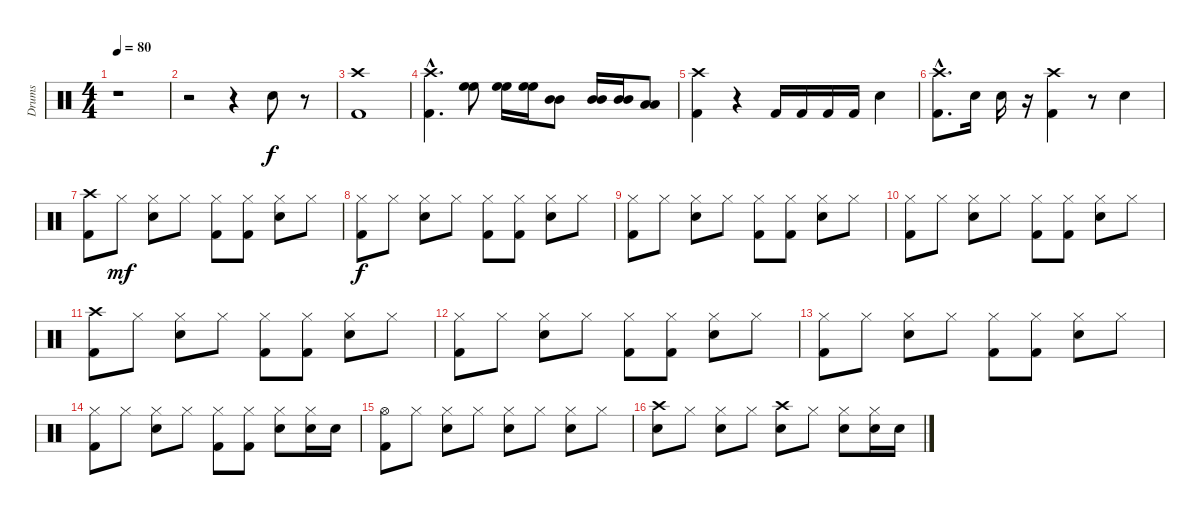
\track ("Drums" "Drums") {instrument percussion}
\staff {score}
\articulation defaults
\ts (4 4)
\tempo 80
\clef neutral
\ks c
r.1{dy f} |
r.2 r.4 "Snare (hit) 2".8 r.8 |
("Crash high (hit)" "Kick (hit) 2").1 |
("Crash high (hit)"{hac} "Kick (hit) 2"{hac}).4{d} ("High Floor Tom (hit)" "High Floor Tom (hit)").8 ("High Floor Tom (hit)" "High Floor Tom (hit)").16 ("High Floor Tom (hit)" "High Floor Tom (hit)").16 ("Mid Tom (hit)" "Mid Tom (hit)").8 ("Mid Tom (hit)" "Mid Tom (hit)").16 ("Mid Tom (hit)" "Mid Tom (hit)").16 ("Low Tom (hit)" "Low Tom (hit)").8 |
("Crash high (hit)" "Kick (hit) 2").4 r.4 "Kick (hit) 2".16 "Kick (hit) 2".16 "Kick (hit) 2".16 "Kick (hit) 2".16 "Snare (hit) 2".4 |
("Crash high (hit)"{hac} "Kick (hit) 2"{hac}).8{d} "Snare (hit) 2".16 "Snare (hit) 2".16 r.16 ("Crash high (hit)" "Kick (hit) 2").4 r.8 "Snare (hit) 2".4 |
("Crash high (hit)" "Kick (hit) 2").8 "Hi-Hat (closed)".8{dy mf} ("Hi-Hat (closed)" "Snare (hit) 2").8 "Hi-Hat (closed)".8 ("Hi-Hat (closed)" "Kick (hit) 2").8 ("Hi-Hat (closed)" "Kick (hit) 2").8 ("Hi-Hat (closed)" "Snare (hit) 2").8 "Hi-Hat (closed)".8 |
("Hi-Hat (closed)" "Kick (hit) 2").8{dy f} "Hi-Hat (closed)".8 ("Hi-Hat (closed)" "Snare (hit) 2").8 "Hi-Hat (closed)".8 ("Hi-Hat (closed)" "Kick (hit) 2").8 ("Hi-Hat (closed)" "Kick (hit) 2").8 ("Hi-Hat (closed)" "Snare (hit) 2").8 "Hi-Hat (closed)".8 |
("Hi-Hat (closed)" "Kick (hit) 2").8 "Hi-Hat (closed)".8 ("Hi-Hat (closed)" "Snare (hit) 2").8 "Hi-Hat (closed)".8 ("Hi-Hat (closed)" "Kick (hit) 2").8 ("Hi-Hat (closed)" "Kick (hit) 2").8 ("Hi-Hat (closed)" "Snare (hit) 2").8 "Hi-Hat (closed)".8 |
("Hi-Hat (closed)" "Kick (hit) 2").8 "Hi-Hat (closed)".8 ("Hi-Hat (closed)" "Snare (hit) 2").8 "Hi-Hat (closed)".8 ("Hi-Hat (closed)" "Kick (hit) 2").8 ("Hi-Hat (closed)" "Kick (hit) 2").8 ("Hi-Hat (closed)" "Snare (hit) 2").8 "Hi-Hat (closed)".8 |
("Crash high (hit)" "Kick (hit) 2").8 "Hi-Hat (closed)".8 ("Hi-Hat (closed)" "Snare (hit) 2").8 "Hi-Hat (closed)".8 ("Hi-Hat (closed)" "Kick (hit) 2").8 ("Hi-Hat (closed)" "Kick (hit) 2").8 ("Hi-Hat (closed)" "Snare (hit) 2").8 "Hi-Hat (closed)".8 |
("Hi-Hat (closed)" "Kick (hit) 2").8 "Hi-Hat (closed)".8 ("Hi-Hat (closed)" "Snare (hit) 2").8 "Hi-Hat (closed)".8 ("Hi-Hat (closed)" "Kick (hit) 2").8 ("Hi-Hat (closed)" "Kick (hit) 2").8 ("Hi-Hat (closed)" "Snare (hit) 2").8 "Hi-Hat (closed)".8 |
("Hi-Hat (closed)" "Kick (hit) 2").8 "Hi-Hat (closed)".8 ("Hi-Hat (closed)" "Snare (hit) 2").8 "Hi-Hat (closed)".8 ("Hi-Hat (closed)" "Kick (hit) 2").8 ("Hi-Hat (closed)" "Kick (hit) 2").8 ("Hi-Hat (closed)" "Snare (hit) 2").8 "Hi-Hat (closed)".8 |
("Hi-Hat (closed)" "Kick (hit) 2").8 "Hi-Hat (closed)".8 ("Hi-Hat (closed)" "Snare (hit) 2").8 "Hi-Hat (closed)".8 ("Hi-Hat (closed)" "Kick (hit) 2").8 ("Hi-Hat (closed)" "Kick (hit) 2").8 ("Hi-Hat (closed)" "Snare (hit) 2").8 ("Hi-Hat (closed)" "Snare (hit) 2").16 "Snare (hit) 2".16 |
("Hi-Hat (open)" "Kick (hit) 2").8 "Hi-Hat (closed)".8 ("Hi-Hat (closed)" "Snare (hit) 2").8 "Hi-Hat (closed)".8 ("Hi-Hat (closed)" "Snare (hit) 2").8 "Hi-Hat (closed)".8 ("Hi-Hat (closed)" "Snare (hit) 2").8 "Hi-Hat (closed)".8 |
("Crash high (hit)" "Snare (hit) 2").8 "Hi-Hat (closed)".8 ("Hi-Hat (closed)" "Snare (hit) 2").8 "Hi-Hat (closed)".8 ("Crash high (hit)" "Snare (hit) 2").8 "Hi-Hat (closed)".8 ("Hi-Hat (closed)" "Snare (hit) 2").8 ("Hi-Hat (closed)" "Snare (hit) 2").16 "Snare (hit) 2".16
